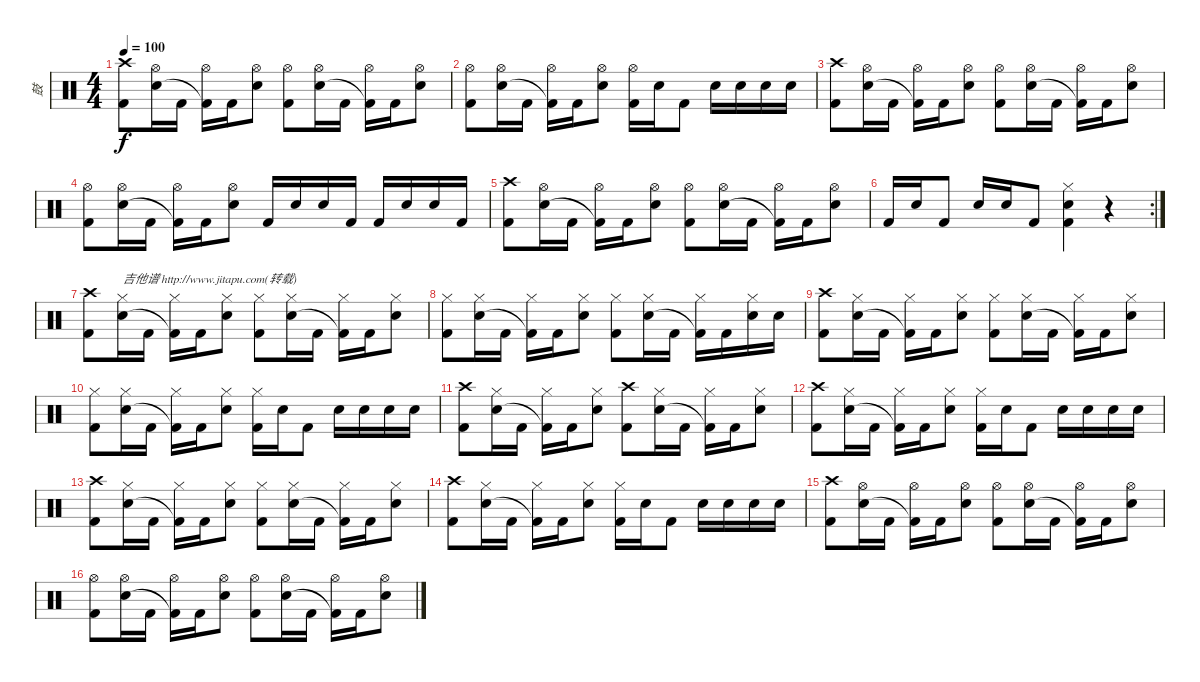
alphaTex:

\track ("鼓" "鼓") {instrument percussion}
\staff {score}
\articulation defaults
\ts (4 4)
\tempo 100
\clef neutral
\ks c
("Crash high (hit)" "Kick (hit) 2").8{dy f} ("Hi-Hat (open)" "Snare (hit) 2").16 "Kick (hit) 2".16 ("Hi-Hat (open)" "Kick (hit) 2"{t}).16 "Kick (hit) 2".16 ("Hi-Hat (open)" "Snare (hit) 2").8 ("Hi-Hat (open)" "Kick (hit) 2").8 ("Hi-Hat (open)" "Snare (hit) 2").16 "Kick (hit) 2".16 ("Hi-Hat (open)" "Kick (hit) 2"{t}).16 "Kick (hit) 2".16 ("Hi-Hat (open)" "Snare (hit) 2").8 |
("Hi-Hat (open)" "Kick (hit) 2").8 ("Hi-Hat (open)" "Snare (hit) 2").16 "Kick (hit) 2".16 ("Hi-Hat (open)" "Kick (hit) 2"{t}).16 "Kick (hit) 2".16 ("Hi-Hat (open)" "Snare (hit) 2").8 ("Hi-Hat (open)" "Kick (hit) 2").16 "Snare (hit) 2".16 "Kick (hit) 2".8 "Snare (hit) 2".16 "Snare (hit) 2".16 "Snare (hit) 2".16 "Snare (hit) 2".16 |
("Crash high (hit)" "Kick (hit) 2").8 ("Hi-Hat (open)" "Snare (hit) 2").16 "Kick (hit) 2".16 ("Hi-Hat (open)" "Kick (hit) 2"{t}).16 "Kick (hit) 2".16 ("Hi-Hat (open)" "Snare (hit) 2").8 ("Hi-Hat (open)" "Kick (hit) 2").8 ("Hi-Hat (open)" "Snare (hit) 2").16 "Kick (hit) 2".16 ("Hi-Hat (open)" "Kick (hit) 2"{t}).16 "Kick (hit) 2".16 ("Hi-Hat (open)" "Snare (hit) 2").8 |
("Hi-Hat (open)" "Kick (hit) 2").8 ("Hi-Hat (open)" "Snare (hit) 2").16 "Kick (hit) 2".16 ("Hi-Hat (open)" "Kick (hit) 2"{t}).16 "Kick (hit) 2".16 ("Hi-Hat (open)" "Snare (hit) 2").8 "Kick (hit) 2".16 "Snare (hit) 2".16 "Snare (hit) 2".16 "Kick (hit) 2".16 "Kick (hit) 2".16 "Snare (hit) 2".16 "Snare (hit) 2".16 "Kick (hit) 2".16 |
("Crash high (hit)" "Kick (hit) 2").8 ("Hi-Hat (open)" "Snare (hit) 2").16 "Kick (hit) 2".16 ("Hi-Hat (open)" "Kick (hit) 2"{t}).16 "Kick (hit) 2".16 ("Hi-Hat (open)" "Snare (hit) 2").8 ("Hi-Hat (open)" "Kick (hit) 2").8 ("Hi-Hat (open)" "Snare (hit) 2").16 "Kick (hit) 2".16 ("Hi-Hat (open)" "Kick (hit) 2"{t}).16 "Kick (hit) 2".16 ("Hi-Hat (open)" "Snare (hit) 2").8 |
\rc 2 "Kick (hit) 2".16 "Snare (hit) 2".16 "Kick (hit) 2".8 "Snare (hit) 2".16 "Snare (hit) 2".16 "Kick (hit) 2".8
("Hi-Hat (closed)" "Kick (hit) 2" "Snare (hit) 2").4 r.4 |
("Crash high (hit)" "Kick (hit) 2").8 ("Hi-Hat (closed)" "Snare (hit) 2").16{txt "吉他谱 http://www.jitapu.com(转载)"} "Kick (hit) 2".16 ("Hi-Hat (closed)" "Kick (hit) 2"{t}).16 "Kick (hit) 2".16 ("Hi-Hat (closed)" "Snare (hit) 2").8 ("Hi-Hat (closed)" "Kick (hit) 2").8 ("Hi-Hat (closed)" "Snare (hit) 2").16 "Kick (hit) 2".16 ("Hi-Hat (closed)" "Kick (hit) 2"{t}).16 "Kick (hit) 2".16 ("Hi-Hat (closed)" "Snare (hit) 2").8 |
("Hi-Hat (closed)" "Kick (hit) 2").8 ("Hi-Hat (closed)" "Snare (hit) 2").16 "Kick (hit) 2".16 ("Hi-Hat (closed)" "Kick (hit) 2"{t}).16 "Kick (hit) 2".16 ("Hi-Hat (closed)" "Snare (hit) 2").8 ("Hi-Hat (closed)" "Kick (hit) 2").8 ("Hi-Hat (closed)" "Snare (hit) 2").16 "Kick (hit) 2".16 ("Hi-Hat (closed)" "Kick (hit) 2"{t}).16 "Kick (hit) 2".16 ("Hi-Hat (closed)" "Snare (hit) 2").16 "Snare (hit) 2".16 |
("Crash high (hit)" "Kick (hit) 2").8 ("Hi-Hat (closed)" "Snare (hit) 2").16 "Kick (hit) 2".16 ("Hi-Hat (closed)" "Kick (hit) 2"{t}).16 "Kick (hit) 2".16 ("Hi-Hat (closed)" "Snare (hit) 2").8 ("Hi-Hat (closed)" "Kick (hit) 2").8 ("Hi-Hat (closed)" "Snare (hit) 2").16 "Kick (hit) 2".16 ("Hi-Hat (closed)" "Kick (hit) 2"{t}).16 "Kick (hit) 2".16 ("Hi-Hat (closed)" "Snare (hit) 2").8 |
("Hi-Hat (closed)" "Kick (hit) 2").8 ("Hi-Hat (closed)" "Snare (hit) 2").16 "Kick (hit) 2".16 ("Hi-Hat (closed)" "Kick (hit) 2"{t}).16 "Kick (hit) 2".16 ("Hi-Hat (closed)" "Snare (hit) 2").8 ("Hi-Hat (closed)" "Kick (hit) 2").16 "Snare (hit) 2".16 "Kick (hit) 2".8 "Snare (hit) 2".16 "Snare (hit) 2".16 "Snare (hit) 2".16 "Snare (hit) 2".16 |
("Crash high (hit)" "Kick (hit) 2").8 ("Hi-Hat (closed)" "Snare (hit) 2").16 "Kick (hit) 2".16 ("Hi-Hat (closed)" "Kick (hit) 2"{t}).16 "Kick (hit) 2".16 ("Hi-Hat (closed)" "Snare (hit) 2").8 ("Crash high (hit)" "Kick (hit) 2").8 ("Hi-Hat (closed)" "Snare (hit) 2").16 "Kick (hit) 2".16 ("Hi-Hat (closed)" "Kick (hit) 2"{t}).16 "Kick (hit) 2".16 ("Hi-Hat (closed)" "Snare (hit) 2").8 |
("Crash high (hit)" "Kick (hit) 2").8 ("Hi-Hat (closed)" "Snare (hit) 2").16 "Kick (hit) 2".16 ("Hi-Hat (closed)" "Kick (hit) 2"{t}).16 "Kick (hit) 2".16 ("Hi-Hat (closed)" "Snare (hit) 2").8 ("Hi-Hat (closed)" "Kick (hit) 2").16 "Snare (hit) 2".16 "Kick (hit) 2".8 "Snare (hit) 2".16 "Snare (hit) 2".16 "Snare (hit) 2".16 "Snare (hit) 2".16 |
("Crash high (hit)" "Kick (hit) 2").8 ("Hi-Hat (closed)" "Snare (hit) 2").16 "Kick (hit) 2".16 ("Hi-Hat (closed)" "Kick (hit) 2"{t}).16 "Kick (hit) 2".16 ("Hi-Hat (closed)" "Snare (hit) 2").8 ("Hi-Hat (closed)" "Kick (hit) 2").8 ("Hi-Hat (closed)" "Snare (hit) 2").16 "Kick (hit) 2".16 ("Hi-Hat (closed)" "Kick (hit) 2"{t}).16 "Kick (hit) 2".16 ("Hi-Hat (closed)" "Snare (hit) 2").8 |
("Crash high (hit)" "Kick (hit) 2").8 ("Hi-Hat (closed)" "Snare (hit) 2").16 "Kick (hit) 2".16 ("Hi-Hat (closed)" "Kick (hit) 2"{t}).16 "Kick (hit) 2".16 ("Hi-Hat (closed)" "Snare (hit) 2").8 ("Hi-Hat (closed)" "Kick (hit) 2").16 "Snare (hit) 2".16 "Kick (hit) 2".8 "Snare (hit) 2".16 "Snare (hit) 2".16 "Snare (hit) 2".16 "Snare (hit) 2".16 |
("Crash high (hit)" "Kick (hit) 2").8 ("Hi-Hat (open)" "Snare (hit) 2").16 "Kick (hit) 2".16 ("Hi-Hat (open)" "Kick (hit) 2"{t}).16 "Kick (hit) 2".16 ("Hi-Hat (open)" "Snare (hit) 2").8 ("Hi-Hat (open)" "Kick (hit) 2").8 ("Hi-Hat (open)" "Snare (hit) 2").16 "Kick (hit) 2".16 ("Hi-Hat (open)" "Kick (hit) 2"{t}).16 "Kick (hit) 2".16 ("Hi-Hat (open)" "Snare (hit) 2").8 |
("Hi-Hat (open)" "Kick (hit) 2").8 ("Hi-Hat (open)" "Snare (hit) 2").16 "Kick (hit) 2".16 ("Hi-Hat (open)" "Kick (hit) 2"{t}).16 "Kick (hit) 2".16 ("Hi-Hat (open)" "Snare (hit) 2").8 ("Hi-Hat (open)" "Kick (hit) 2").8 ("Hi-Hat (open)" "Snare (hit) 2").16 "Kick (hit) 2".16 ("Hi-Hat (open)" "Kick (hit) 2"{t}).16 "Kick (hit) 2".16 ("Hi-Hat (open)" "Snare (hit) 2").8
